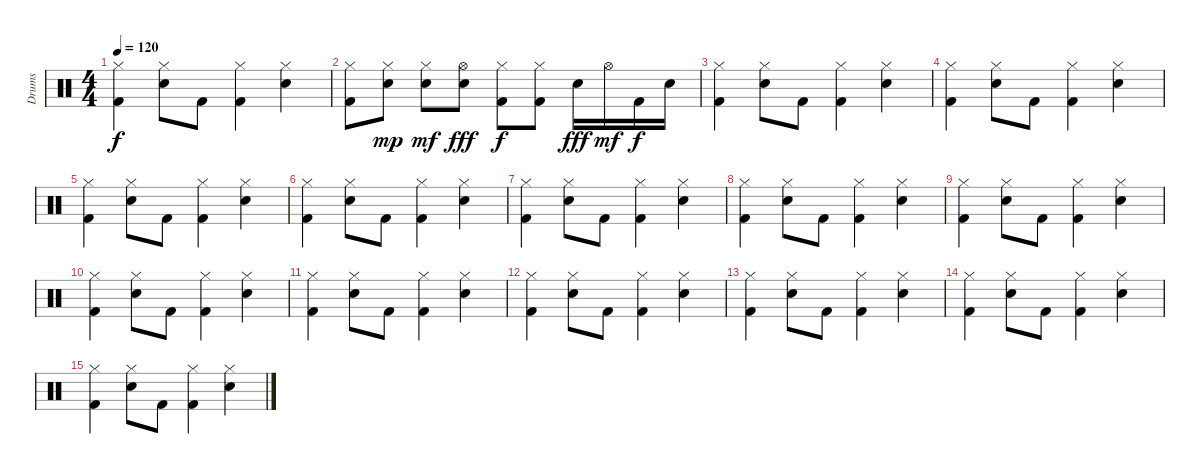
\track ("Drums" "Drums") {instrument percussion}
\staff {score}
\articulation defaults
\ts (4 4)
\tempo 120
\clef neutral
\ks c
("Hi-Hat (closed)" "Kick (hit) 2").4{dy f} ("Electric Snare (hit)" "Hi-Hat (closed)").8 "Kick (hit) 2".8 ("Hi-Hat (closed)" "Kick (hit) 2").4 ("Electric Snare (hit)" "Hi-Hat (closed)").4 |
("Hi-Hat (closed)" "Kick (hit) 2").8 ("Electric Snare (hit)" "Hi-Hat (closed)").8{dy mp} ("Electric Snare (hit)" "Hi-Hat (closed)").8{dy mf} ("Electric Snare (hit)" "Hi-Hat (open)").8{dy fff} ("Hi-Hat (closed)" "Kick (hit) 2").8{dy f} ("Hi-Hat (closed)" "Kick (hit) 2").8 "Electric Snare (hit)".16{dy fff} "Hi-Hat (open)".16{dy mf} "Kick (hit) 2".16{dy f} "Electric Snare (hit)".16 |
("Hi-Hat (closed)" "Kick (hit) 2").4 ("Electric Snare (hit)" "Hi-Hat (closed)").8 "Kick (hit) 2".8 ("Hi-Hat (closed)" "Kick (hit) 2").4 ("Electric Snare (hit)" "Hi-Hat (closed)").4 |
("Hi-Hat (closed)" "Kick (hit) 2").4 ("Electric Snare (hit)" "Hi-Hat (closed)").8 "Kick (hit) 2".8 ("Hi-Hat (closed)" "Kick (hit) 2").4 ("Electric Snare (hit)" "Hi-Hat (closed)").4 |
("Hi-Hat (closed)" "Kick (hit) 2").4 ("Electric Snare (hit)" "Hi-Hat (closed)").8 "Kick (hit) 2".8 ("Hi-Hat (closed)" "Kick (hit) 2").4 ("Electric Snare (hit)" "Hi-Hat (closed)").4 |
("Hi-Hat (closed)" "Kick (hit) 2").4 ("Electric Snare (hit)" "Hi-Hat (closed)").8 "Kick (hit) 2".8 ("Hi-Hat (closed)" "Kick (hit) 2").4 ("Electric Snare (hit)" "Hi-Hat (closed)").4 |
("Hi-Hat (closed)" "Kick (hit) 2").4 ("Electric Snare (hit)" "Hi-Hat (closed)").8 "Kick (hit) 2".8 ("Hi-Hat (closed)" "Kick (hit) 2").4 ("Electric Snare (hit)" "Hi-Hat (closed)").4 |
("Hi-Hat (closed)" "Kick (hit) 2").4 ("Electric Snare (hit)" "Hi-Hat (closed)").8 "Kick (hit) 2".8 ("Hi-Hat (closed)" "Kick (hit) 2").4 ("Electric Snare (hit)" "Hi-Hat (closed)").4 |
("Hi-Hat (closed)" "Kick (hit) 2").4 ("Electric Snare (hit)" "Hi-Hat (closed)").8 "Kick (hit) 2".8 ("Hi-Hat (closed)" "Kick (hit) 2").4 ("Electric Snare (hit)" "Hi-Hat (closed)").4 |
("Hi-Hat (closed)" "Kick (hit) 2").4 ("Electric Snare (hit)" "Hi-Hat (closed)").8 "Kick (hit) 2".8 ("Hi-Hat (closed)" "Kick (hit) 2").4 ("Electric Snare (hit)" "Hi-Hat (closed)").4 |
("Hi-Hat (closed)" "Kick (hit) 2").4 ("Electric Snare (hit)" "Hi-Hat (closed)").8 "Kick (hit) 2".8 ("Hi-Hat (closed)" "Kick (hit) 2").4 ("Electric Snare (hit)" "Hi-Hat (closed)").4 |
("Hi-Hat (closed)" "Kick (hit) 2").4 ("Electric Snare (hit)" "Hi-Hat (closed)").8 "Kick (hit) 2".8 ("Hi-Hat (closed)" "Kick (hit) 2").4 ("Electric Snare (hit)" "Hi-Hat (closed)").4 |
("Hi-Hat (closed)" "Kick (hit) 2").4 ("Electric Snare (hit)" "Hi-Hat (closed)").8 "Kick (hit) 2".8 ("Hi-Hat (closed)" "Kick (hit) 2").4 ("Electric Snare (hit)" "Hi-Hat (closed)").4 |
("Hi-Hat (closed)" "Kick (hit) 2").4{volume 9} ("Electric Snare (hit)" "Hi-Hat (closed)").8 "Kick (hit) 2".8 ("Hi-Hat (closed)" "Kick (hit) 2").4 ("Electric Snare (hit)" "Hi-Hat (closed)").4 |
("Hi-Hat (closed)" "Kick (hit) 2").4{volume 5} ("Electric Snare (hit)" "Hi-Hat (closed)").8 "Kick (hit) 2".8 ("Hi-Hat (closed)" "Kick (hit) 2").4 ("Electric Snare (hit)" "Hi-Hat (closed)").4
